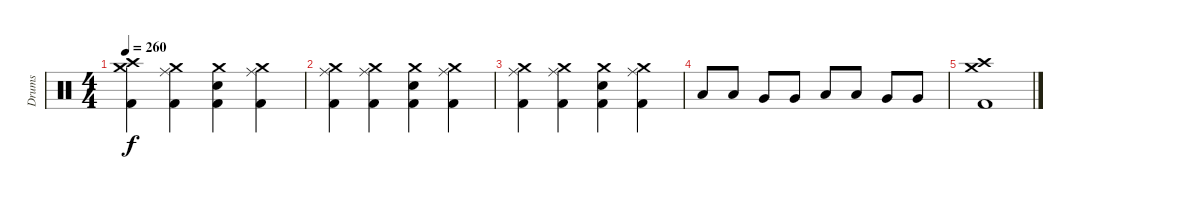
\track ("Drums" "Drums") {instrument percussion}
\staff {score}
\articulation defaults
\ts (4 4)
\tempo 260
\clef neutral
\ks c
("Crash medium (hit)" "Crash high (hit)" "Kick (hit) 2").4{dy f} ("Crash medium (hit)" "Ride (middle)" "Kick (hit) 2").4 ("Crash medium (hit)" "Snare (hit) 2" "Kick (hit) 2").4 ("Crash medium (hit)" "Ride (middle)" "Kick (hit) 2").4 |
("Crash medium (hit)" "Ride (middle)" "Kick (hit) 2").4 ("Crash medium (hit)" "Ride (middle)" "Kick (hit) 2").4 ("Crash medium (hit)" "Snare (hit) 2" "Kick (hit) 2").4 ("Crash medium (hit)" "Ride (middle)" "Kick (hit) 2").4 |
("Crash medium (hit)" "Ride (middle)" "Kick (hit) 2").4 ("Crash medium (hit)" "Ride (middle)" "Kick (hit) 2").4 ("Crash medium (hit)" "Snare (hit) 2" "Kick (hit) 2").4 ("Crash medium (hit)" "Ride (middle)" "Kick (hit) 2").4 |
"Low Tom (hit)".8 "Low Tom (hit)".8 "Very Low Tom (hit)".8 "Very Low Tom (hit)".8 "Low Floor Tom (hit)".8 "Low Floor Tom (hit)".8 "Very Low Tom (hit)".8 "Very Low Tom (hit)".8 |
("Crash medium (hit)" "Crash high (hit)" "Kick (hit) 2").1
